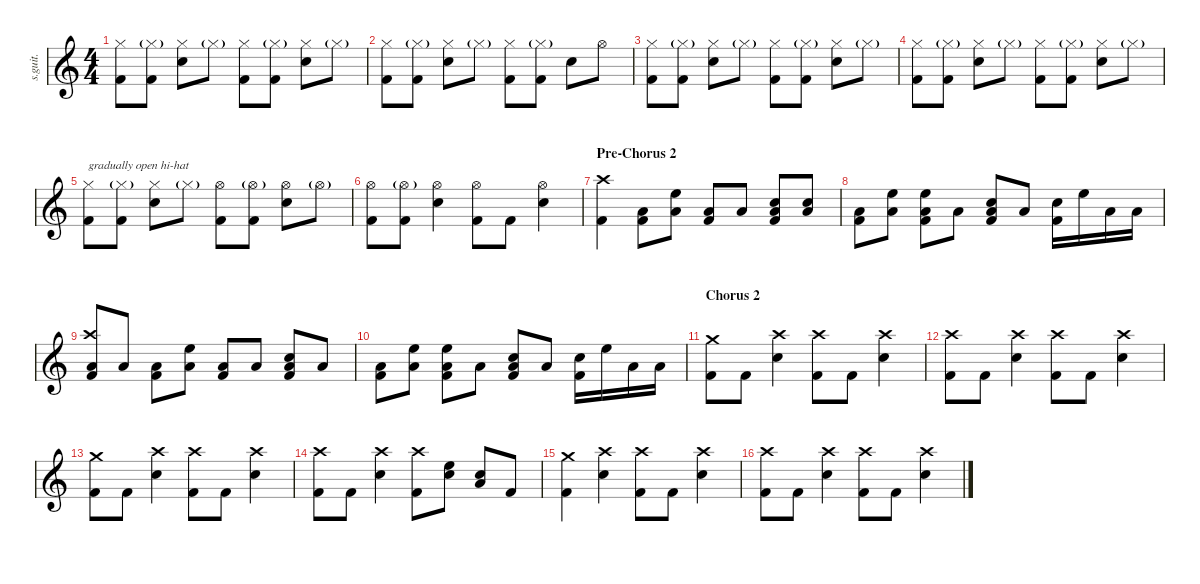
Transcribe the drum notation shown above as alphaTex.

\defaultSystemsLayout 4
\hideDynamics
\bracketExtendMode nobrackets
\track ("Travis" "s.guit.") {instrument percussion}
\staff {score}
\articulation defaults
\ts (4 4)
\tempo (149 hide)
\clef g2
\ks c
("Hi-Hat (closed)" "Kick (hit) 2").8{lyrics (0 "") lyrics (1 "") lyrics (2 "") lyrics (3 "") lyrics (4 "") dy f} ("Hi-Hat (closed)"{g} "Kick (hit) 2").8{lyrics (0 "") lyrics (1 "") lyrics (2 "") lyrics (3 "") lyrics (4 "")} ("Hi-Hat (closed)" "Snare (hit) 2").8{lyrics (0 "") lyrics (1 "") lyrics (2 "") lyrics (3 "") lyrics (4 "")} "Hi-Hat (closed)"{g}.8{lyrics (0 "") lyrics (1 "") lyrics (2 "") lyrics (3 "") lyrics (4 "") dy mp} ("Hi-Hat (closed)" "Kick (hit) 2").8{lyrics (0 "") lyrics (1 "") lyrics (2 "") lyrics (3 "") lyrics (4 "") dy f} ("Hi-Hat (closed)"{g} "Kick (hit) 2").8{lyrics (0 "") lyrics (1 "") lyrics (2 "") lyrics (3 "") lyrics (4 "")} ("Hi-Hat (closed)" "Snare (hit) 2").8{lyrics (0 "") lyrics (1 "") lyrics (2 "") lyrics (3 "") lyrics (4 "")} "Hi-Hat (closed)"{g}.8{lyrics (0 "") lyrics (1 "") lyrics (2 "") lyrics (3 "") lyrics (4 "") dy mp} |
("Hi-Hat (closed)" "Kick (hit) 2").8{lyrics (0 "") lyrics (1 "") lyrics (2 "") lyrics (3 "") lyrics (4 "") dy f} ("Hi-Hat (closed)"{g} "Kick (hit) 2").8{lyrics (0 "") lyrics (1 "") lyrics (2 "") lyrics (3 "") lyrics (4 "")} ("Hi-Hat (closed)" "Snare (hit) 2").8{lyrics (0 "") lyrics (1 "") lyrics (2 "") lyrics (3 "") lyrics (4 "")} "Hi-Hat (closed)"{g}.8{lyrics (0 "") lyrics (1 "") lyrics (2 "") lyrics (3 "") lyrics (4 "") dy mp} ("Hi-Hat (closed)" "Kick (hit) 2").8{lyrics (0 "") lyrics (1 "") lyrics (2 "") lyrics (3 "") lyrics (4 "") dy f} ("Hi-Hat (closed)"{g} "Kick (hit) 2").8{lyrics (0 "") lyrics (1 "") lyrics (2 "") lyrics (3 "") lyrics (4 "")} "Snare (hit) 2".8{lyrics (0 "") lyrics (1 "") lyrics (2 "") lyrics (3 "") lyrics (4 "")} "Hi-Hat (open)".8{lyrics (0 "") lyrics (1 "") lyrics (2 "") lyrics (3 "") lyrics (4 "")} |
("Hi-Hat (closed)" "Kick (hit) 2").8{lyrics (0 "") lyrics (1 "") lyrics (2 "") lyrics (3 "") lyrics (4 "")} ("Hi-Hat (closed)"{g} "Kick (hit) 2").8{lyrics (0 "") lyrics (1 "") lyrics (2 "") lyrics (3 "") lyrics (4 "")} ("Hi-Hat (closed)" "Snare (hit) 2").8{lyrics (0 "") lyrics (1 "") lyrics (2 "") lyrics (3 "") lyrics (4 "")} "Hi-Hat (closed)"{g}.8{lyrics (0 "") lyrics (1 "") lyrics (2 "") lyrics (3 "") lyrics (4 "") dy mp} ("Hi-Hat (closed)" "Kick (hit) 2").8{lyrics (0 "") lyrics (1 "") lyrics (2 "") lyrics (3 "") lyrics (4 "") dy f} ("Hi-Hat (closed)"{g} "Kick (hit) 2").8{lyrics (0 "") lyrics (1 "") lyrics (2 "") lyrics (3 "") lyrics (4 "")} ("Hi-Hat (closed)" "Snare (hit) 2").8{lyrics (0 "") lyrics (1 "") lyrics (2 "") lyrics (3 "") lyrics (4 "")} "Hi-Hat (closed)"{g}.8{lyrics (0 "") lyrics (1 "") lyrics (2 "") lyrics (3 "") lyrics (4 "") dy mp} |
("Hi-Hat (closed)" "Kick (hit) 2").8{lyrics (0 "") lyrics (1 "") lyrics (2 "") lyrics (3 "") lyrics (4 "") dy f} ("Hi-Hat (closed)"{g} "Kick (hit) 2").8{lyrics (0 "") lyrics (1 "") lyrics (2 "") lyrics (3 "") lyrics (4 "")} ("Hi-Hat (closed)" "Snare (hit) 2").8{lyrics (0 "") lyrics (1 "") lyrics (2 "") lyrics (3 "") lyrics (4 "")} "Hi-Hat (closed)"{g}.8{lyrics (0 "") lyrics (1 "") lyrics (2 "") lyrics (3 "") lyrics (4 "") dy mp} ("Hi-Hat (closed)" "Kick (hit) 2").8{lyrics (0 "") lyrics (1 "") lyrics (2 "") lyrics (3 "") lyrics (4 "") dy f} ("Hi-Hat (closed)"{g} "Kick (hit) 2").8{lyrics (0 "") lyrics (1 "") lyrics (2 "") lyrics (3 "") lyrics (4 "")} ("Hi-Hat (closed)" "Snare (hit) 2").8{lyrics (0 "") lyrics (1 "") lyrics (2 "") lyrics (3 "") lyrics (4 "")} "Hi-Hat (closed)"{g}.8{lyrics (0 "") lyrics (1 "") lyrics (2 "") lyrics (3 "") lyrics (4 "") dy mp} |
("Hi-Hat (closed)" "Kick (hit) 2").8{txt "gradually open hi-hat" lyrics (0 "") lyrics (1 "") lyrics (2 "") lyrics (3 "") lyrics (4 "") dy f} ("Hi-Hat (closed)"{g} "Kick (hit) 2").8{lyrics (0 "") lyrics (1 "") lyrics (2 "") lyrics (3 "") lyrics (4 "")} ("Hi-Hat (closed)" "Snare (hit) 2").8{lyrics (0 "") lyrics (1 "") lyrics (2 "") lyrics (3 "") lyrics (4 "")} "Hi-Hat (closed)"{g}.8{lyrics (0 "") lyrics (1 "") lyrics (2 "") lyrics (3 "") lyrics (4 "") dy mp} ("Hi-Hat (open)" "Kick (hit) 2").8{lyrics (0 "") lyrics (1 "") lyrics (2 "") lyrics (3 "") lyrics (4 "") dy f} ("Hi-Hat (open)"{g} "Kick (hit) 2").8{lyrics (0 "") lyrics (1 "") lyrics (2 "") lyrics (3 "") lyrics (4 "")} ("Hi-Hat (open)" "Snare (hit) 2").8{lyrics (0 "") lyrics (1 "") lyrics (2 "") lyrics (3 "") lyrics (4 "")} "Hi-Hat (open)"{g}.8{lyrics (0 "") lyrics (1 "") lyrics (2 "") lyrics (3 "") lyrics (4 "") dy ppp} |
("Hi-Hat (open)" "Kick (hit) 2").8{lyrics (0 "") lyrics (1 "") lyrics (2 "") lyrics (3 "") lyrics (4 "") dy f} ("Hi-Hat (open)"{g} "Kick (hit) 2").8{lyrics (0 "") lyrics (1 "") lyrics (2 "") lyrics (3 "") lyrics (4 "")} ("Hi-Hat (open)" "Snare (hit) 2").4{lyrics (0 "") lyrics (1 "") lyrics (2 "") lyrics (3 "") lyrics (4 "")} ("Hi-Hat (open)" "Kick (hit) 2").8{lyrics (0 "") lyrics (1 "") lyrics (2 "") lyrics (3 "") lyrics (4 "")} "Kick (hit) 2".8{lyrics (0 "") lyrics (1 "") lyrics (2 "") lyrics (3 "") lyrics (4 "")} ("Hi-Hat (open)" "Snare (hit) 2").4{lyrics (0 "") lyrics (1 "") lyrics (2 "") lyrics (3 "") lyrics (4 "")} |
\section ("" "Pre-Chorus 2")
("Crash high (hit)" "Kick (hit) 2").4{lyrics (0 "") lyrics (1 "") lyrics (2 "") lyrics (3 "") lyrics (4 "")} ("Low Tom (hit)" "Kick (hit) 2").8{lyrics (0 "") lyrics (1 "") lyrics (2 "") lyrics (3 "") lyrics (4 "")} ("High Floor Tom (hit)" "Low Tom (hit)").8{lyrics (0 "") lyrics (1 "") lyrics (2 "") lyrics (3 "") lyrics (4 "")} ("Low Tom (hit)" "Kick (hit) 2").8{lyrics (0 "") lyrics (1 "") lyrics (2 "") lyrics (3 "") lyrics (4 "")} "Low Tom (hit)".8{lyrics (0 "") lyrics (1 "") lyrics (2 "") lyrics (3 "") lyrics (4 "")} ("Snare (hit) 2" "Low Tom (hit)" "Kick (hit) 2").8{lyrics (0 "") lyrics (1 "") lyrics (2 "") lyrics (3 "") lyrics (4 "")} ("Snare (hit) 2" "Low Tom (hit)").8{lyrics (0 "") lyrics (1 "") lyrics (2 "") lyrics (3 "") lyrics (4 "")} |
("Low Tom (hit)" "Kick (hit) 2").8{lyrics (0 "") lyrics (1 "") lyrics (2 "") lyrics (3 "") lyrics (4 "")} ("High Floor Tom (hit)" "Low Tom (hit)").8{lyrics (0 "") lyrics (1 "") lyrics (2 "") lyrics (3 "") lyrics (4 "")} ("High Floor Tom (hit)" "Low Tom (hit)" "Kick (hit) 2").8{lyrics (0 "") lyrics (1 "") lyrics (2 "") lyrics (3 "") lyrics (4 "")} "Low Tom (hit)".8{lyrics (0 "") lyrics (1 "") lyrics (2 "") lyrics (3 "") lyrics (4 "")} ("Snare (hit) 2" "Low Tom (hit)" "Kick (hit) 2").8{lyrics (0 "") lyrics (1 "") lyrics (2 "") lyrics (3 "") lyrics (4 "")} "Low Tom (hit)".8{lyrics (0 "") lyrics (1 "") lyrics (2 "") lyrics (3 "") lyrics (4 "")} ("Snare (hit) 2" "Kick (hit) 2").16{lyrics (0 "") lyrics (1 "") lyrics (2 "") lyrics (3 "") lyrics (4 "")} "High Floor Tom (hit)".16{lyrics (0 "") lyrics (1 "") lyrics (2 "") lyrics (3 "") lyrics (4 "")} "Low Tom (hit)".16{lyrics (0 "") lyrics (1 "") lyrics (2 "") lyrics (3 "") lyrics (4 "")} "Low Tom (hit)".16{lyrics (0 "") lyrics (1 "") lyrics (2 "") lyrics (3 "") lyrics (4 "")} |
("Crash high (hit)" "Low Tom (hit)" "Kick (hit) 2").8{lyrics (0 "") lyrics (1 "") lyrics (2 "") lyrics (3 "") lyrics (4 "")} "Low Tom (hit)".8{lyrics (0 "") lyrics (1 "") lyrics (2 "") lyrics (3 "") lyrics (4 "")} ("Low Tom (hit)" "Kick (hit) 2").8{lyrics (0 "") lyrics (1 "") lyrics (2 "") lyrics (3 "") lyrics (4 "")} ("High Floor Tom (hit)" "Low Tom (hit)").8{lyrics (0 "") lyrics (1 "") lyrics (2 "") lyrics (3 "") lyrics (4 "")} ("Low Tom (hit)" "Kick (hit) 2").8{lyrics (0 "") lyrics (1 "") lyrics (2 "") lyrics (3 "") lyrics (4 "")} "Low Tom (hit)".8{lyrics (0 "") lyrics (1 "") lyrics (2 "") lyrics (3 "") lyrics (4 "")} ("Snare (hit) 2" "Low Tom (hit)" "Kick (hit) 2").8{lyrics (0 "") lyrics (1 "") lyrics (2 "") lyrics (3 "") lyrics (4 "")} "Low Tom (hit)".8{lyrics (0 "") lyrics (1 "") lyrics (2 "") lyrics (3 "") lyrics (4 "")} |
("Low Tom (hit)" "Kick (hit) 2").8{lyrics (0 "") lyrics (1 "") lyrics (2 "") lyrics (3 "") lyrics (4 "")} ("High Floor Tom (hit)" "Low Tom (hit)").8{lyrics (0 "") lyrics (1 "") lyrics (2 "") lyrics (3 "") lyrics (4 "")} ("High Floor Tom (hit)" "Low Tom (hit)" "Kick (hit) 2").8{lyrics (0 "") lyrics (1 "") lyrics (2 "") lyrics (3 "") lyrics (4 "")} "Low Tom (hit)".8{lyrics (0 "") lyrics (1 "") lyrics (2 "") lyrics (3 "") lyrics (4 "")} ("Snare (hit) 2" "Low Tom (hit)" "Kick (hit) 2").8{lyrics (0 "") lyrics (1 "") lyrics (2 "") lyrics (3 "") lyrics (4 "")} "Low Tom (hit)".8{lyrics (0 "") lyrics (1 "") lyrics (2 "") lyrics (3 "") lyrics (4 "")} ("Snare (hit) 2" "Kick (hit) 2").16{lyrics (0 "") lyrics (1 "") lyrics (2 "") lyrics (3 "") lyrics (4 "")} "High Floor Tom (hit)".16{lyrics (0 "") lyrics (1 "") lyrics (2 "") lyrics (3 "") lyrics (4 "")} "Low Tom (hit)".16{lyrics (0 "") lyrics (1 "") lyrics (2 "") lyrics (3 "") lyrics (4 "")} "Low Tom (hit)".16{lyrics (0 "") lyrics (1 "") lyrics (2 "") lyrics (3 "") lyrics (4 "")} |
\section ("" "Chorus 2")
("Crash medium (hit)" "Kick (hit) 2").8{lyrics (0 "") lyrics (1 "") lyrics (2 "") lyrics (3 "") lyrics (4 "")} "Kick (hit) 2".8{lyrics (0 "") lyrics (1 "") lyrics (2 "") lyrics (3 "") lyrics (4 "")} ("Crash high (hit)" "Snare (hit) 2").4{lyrics (0 "") lyrics (1 "") lyrics (2 "") lyrics (3 "") lyrics (4 "")} ("Crash high (hit)" "Kick (hit) 2").8{lyrics (0 "") lyrics (1 "") lyrics (2 "") lyrics (3 "") lyrics (4 "")} "Kick (hit) 2".8{lyrics (0 "") lyrics (1 "") lyrics (2 "") lyrics (3 "") lyrics (4 "")} ("Crash high (hit)" "Snare (hit) 2").4{lyrics (0 "") lyrics (1 "") lyrics (2 "") lyrics (3 "") lyrics (4 "")} |
("Crash high (hit)" "Kick (hit) 2").8{lyrics (0 "") lyrics (1 "") lyrics (2 "") lyrics (3 "") lyrics (4 "")} "Kick (hit) 2".8{lyrics (0 "") lyrics (1 "") lyrics (2 "") lyrics (3 "") lyrics (4 "")} ("Crash high (hit)" "Snare (hit) 2").4{lyrics (0 "") lyrics (1 "") lyrics (2 "") lyrics (3 "") lyrics (4 "")} ("Crash high (hit)" "Kick (hit) 2").8{lyrics (0 "") lyrics (1 "") lyrics (2 "") lyrics (3 "") lyrics (4 "")} "Kick (hit) 2".8{lyrics (0 "") lyrics (1 "") lyrics (2 "") lyrics (3 "") lyrics (4 "")} ("Crash high (hit)" "Snare (hit) 2").4{lyrics (0 "") lyrics (1 "") lyrics (2 "") lyrics (3 "") lyrics (4 "")} |
("Crash medium (hit)" "Kick (hit) 2").8{lyrics (0 "") lyrics (1 "") lyrics (2 "") lyrics (3 "") lyrics (4 "")} "Kick (hit) 2".8{lyrics (0 "") lyrics (1 "") lyrics (2 "") lyrics (3 "") lyrics (4 "")} ("Crash high (hit)" "Snare (hit) 2").4{lyrics (0 "") lyrics (1 "") lyrics (2 "") lyrics (3 "") lyrics (4 "")} ("Crash high (hit)" "Kick (hit) 2").8{lyrics (0 "") lyrics (1 "") lyrics (2 "") lyrics (3 "") lyrics (4 "")} "Kick (hit) 2".8{lyrics (0 "") lyrics (1 "") lyrics (2 "") lyrics (3 "") lyrics (4 "")} ("Crash high (hit)" "Snare (hit) 2").4{lyrics (0 "") lyrics (1 "") lyrics (2 "") lyrics (3 "") lyrics (4 "")} |
("Crash high (hit)" "Kick (hit) 2").8{lyrics (0 "") lyrics (1 "") lyrics (2 "") lyrics (3 "") lyrics (4 "")} "Kick (hit) 2".8{lyrics (0 "") lyrics (1 "") lyrics (2 "") lyrics (3 "") lyrics (4 "")} ("Crash high (hit)" "Snare (hit) 2").4{lyrics (0 "") lyrics (1 "") lyrics (2 "") lyrics (3 "") lyrics (4 "")} ("Crash high (hit)" "Kick (hit) 2").8{lyrics (0 "") lyrics (1 "") lyrics (2 "") lyrics (3 "") lyrics (4 "")} ("High Floor Tom (hit)" "Snare (hit) 2").8{lyrics (0 "") lyrics (1 "") lyrics (2 "") lyrics (3 "") lyrics (4 "")} ("Snare (hit) 2" "Low Tom (hit)").8{lyrics (0 "") lyrics (1 "") lyrics (2 "") lyrics (3 "") lyrics (4 "")} "Kick (hit) 2".8{lyrics (0 "") lyrics (1 "") lyrics (2 "") lyrics (3 "") lyrics (4 "")} |
("Crash medium (hit)" "Kick (hit) 2").4{lyrics (0 "") lyrics (1 "") lyrics (2 "") lyrics (3 "") lyrics (4 "")} ("Crash high (hit)" "Snare (hit) 2").4{lyrics (0 "") lyrics (1 "") lyrics (2 "") lyrics (3 "") lyrics (4 "")} ("Crash high (hit)" "Kick (hit) 2").8{lyrics (0 "") lyrics (1 "") lyrics (2 "") lyrics (3 "") lyrics (4 "")} "Kick (hit) 2".8{lyrics (0 "") lyrics (1 "") lyrics (2 "") lyrics (3 "") lyrics (4 "")} ("Crash high (hit)" "Snare (hit) 2").4{lyrics (0 "") lyrics (1 "") lyrics (2 "") lyrics (3 "") lyrics (4 "")} |
("Crash high (hit)" "Kick (hit) 2").8{lyrics (0 "") lyrics (1 "") lyrics (2 "") lyrics (3 "") lyrics (4 "")} "Kick (hit) 2".8{lyrics (0 "") lyrics (1 "") lyrics (2 "") lyrics (3 "") lyrics (4 "")} ("Crash high (hit)" "Snare (hit) 2").4{lyrics (0 "") lyrics (1 "") lyrics (2 "") lyrics (3 "") lyrics (4 "")} ("Crash high (hit)" "Kick (hit) 2").8{lyrics (0 "") lyrics (1 "") lyrics (2 "") lyrics (3 "") lyrics (4 "")} "Kick (hit) 2".8{lyrics (0 "") lyrics (1 "") lyrics (2 "") lyrics (3 "") lyrics (4 "")} ("Crash high (hit)" "Snare (hit) 2").4{lyrics (0 "") lyrics (1 "") lyrics (2 "") lyrics (3 "") lyrics (4 "")}
